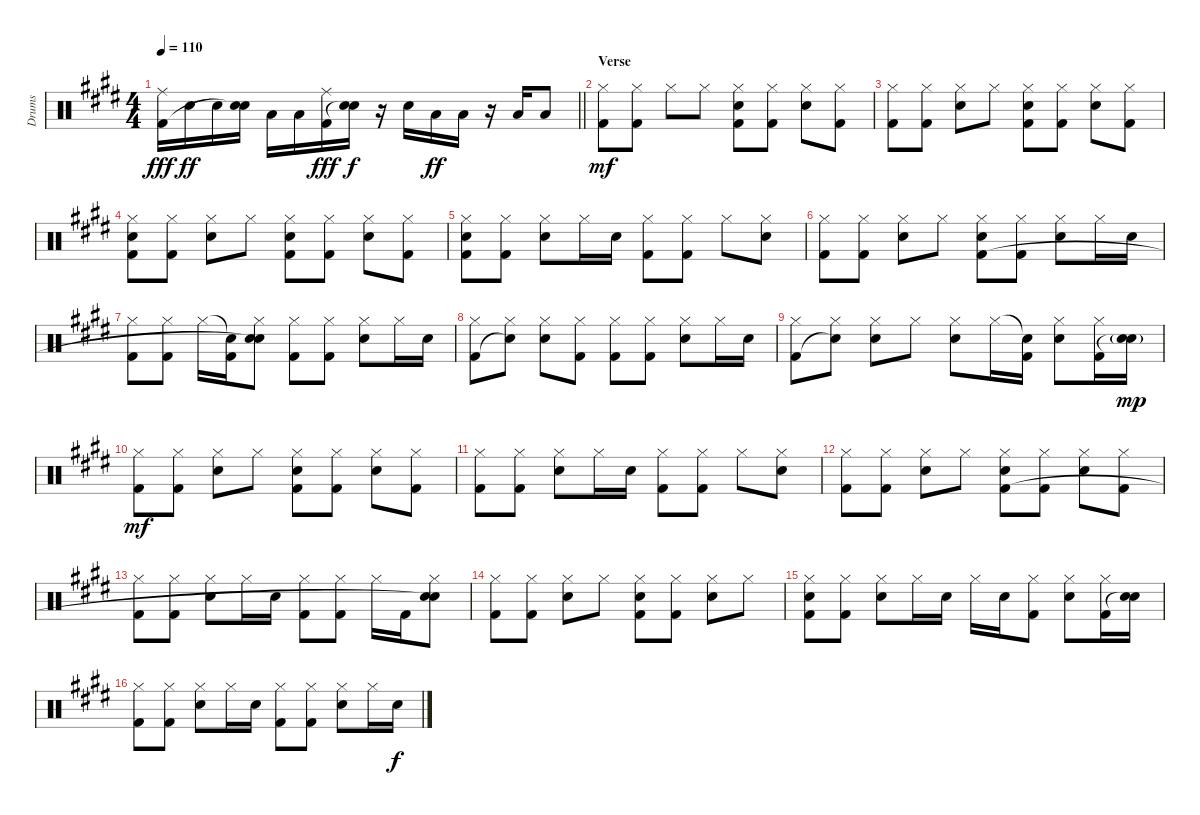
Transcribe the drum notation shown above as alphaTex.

\track ("Drums" "Drums") {instrument percussion}
\staff {score}
\articulation defaults
\ts (4 4)
\tempo 110
\clef neutral
\barLineRight lightlight
\ks c#minor
("Ride (middle)" "Kick (hit) 2").16{dy fff} "Electric Snare (hit)".16{dy ff} "Electric Snare (hit)".16 ("Electric Snare (hit)" "Snare (hit)"{t}).16 "Low Tom (hit)".16 "Low Tom (hit)".16 ("Ride (middle)" "Kick (hit) 2").16{dy fff} ("Electric Snare (hit)" "Snare (hit)"{t}).16{dy f} r.16 "Electric Snare (hit)".16 "Low Tom (hit)".16{dy ff} "Low Tom (hit)".16 r.16 "Low Tom (hit)".16 "Low Tom (hit)".8 |
\section ("" "Verse")
("Hi-Hat (closed)" "Kick (hit) 2").8{dy mf} ("Hi-Hat (closed)" "Kick (hit) 2").8 "Hi-Hat (closed)".8 "Hi-Hat (closed)".8 ("Hi-Hat (closed)" "Electric Snare (hit)" "Kick (hit) 2").8 ("Hi-Hat (closed)" "Kick (hit) 2").8 ("Hi-Hat (closed)" "Electric Snare (hit)").8 ("Hi-Hat (closed)" "Kick (hit) 2").8 |
("Hi-Hat (closed)" "Kick (hit) 2").8 ("Hi-Hat (closed)" "Kick (hit) 2").8 ("Hi-Hat (closed)" "Electric Snare (hit)").8 "Hi-Hat (closed)".8 ("Hi-Hat (closed)" "Electric Snare (hit)" "Kick (hit) 2").8 ("Hi-Hat (closed)" "Kick (hit) 2").8 ("Hi-Hat (closed)" "Electric Snare (hit)").8 ("Hi-Hat (closed)" "Kick (hit) 2").8 |
("Hi-Hat (closed)" "Electric Snare (hit)" "Kick (hit) 2").8 ("Hi-Hat (closed)" "Kick (hit) 2").8 ("Hi-Hat (closed)" "Electric Snare (hit)").8 "Hi-Hat (closed)".8 ("Hi-Hat (closed)" "Electric Snare (hit)" "Kick (hit) 2").8 ("Hi-Hat (closed)" "Kick (hit) 2").8 ("Hi-Hat (closed)" "Electric Snare (hit)").8 ("Hi-Hat (closed)" "Kick (hit) 2").8 |
("Hi-Hat (closed)" "Electric Snare (hit)" "Kick (hit) 2").8 ("Hi-Hat (closed)" "Kick (hit) 2").8 ("Hi-Hat (closed)" "Electric Snare (hit)").8 "Hi-Hat (closed)".16 "Electric Snare (hit)".16 ("Hi-Hat (closed)" "Kick (hit) 2").8 ("Hi-Hat (closed)" "Kick (hit) 2").8 "Hi-Hat (closed)".8 ("Hi-Hat (closed)" "Electric Snare (hit)").8 |
("Hi-Hat (closed)" "Kick (hit) 2").8 ("Hi-Hat (closed)" "Kick (hit) 2").8 ("Hi-Hat (closed)" "Electric Snare (hit)").8 "Hi-Hat (closed)".8 ("Hi-Hat (closed)" "Electric Snare (hit)" "Kick (hit) 2").8 ("Hi-Hat (closed)" "Kick (hit) 2").8 ("Hi-Hat (closed)" "Electric Snare (hit)").8 "Hi-Hat (closed)".16 "Electric Snare (hit)".16 |
("Hi-Hat (closed)" "Kick (hit) 2").8 ("Hi-Hat (closed)" "Kick (hit) 2").8 "Hi-Hat (closed)".16 ("Snare (hit)"{t} "Kick (hit) 2").16 ("Hi-Hat (closed)" "Electric Snare (hit)" "Snare (hit)"{t}).8 ("Hi-Hat (closed)" "Kick (hit) 2").8 ("Hi-Hat (closed)" "Kick (hit) 2").8 ("Hi-Hat (closed)" "Electric Snare (hit)").8 "Hi-Hat (closed)".16 "Electric Snare (hit)".16 |
("Hi-Hat (closed)" "Kick (hit) 2").8 ("Hi-Hat (closed)" "Snare (hit)"{t}).8 ("Hi-Hat (closed)" "Electric Snare (hit)").8 ("Hi-Hat (closed)" "Kick (hit) 2").8 ("Hi-Hat (closed)" "Kick (hit) 2").8 ("Hi-Hat (closed)" "Kick (hit) 2").8 ("Hi-Hat (closed)" "Electric Snare (hit)").8 "Hi-Hat (closed)".16 "Electric Snare (hit)".16 |
("Hi-Hat (closed)" "Kick (hit) 2").8 ("Hi-Hat (closed)" "Snare (hit)"{t}).8 ("Hi-Hat (closed)" "Electric Snare (hit)").8 "Hi-Hat (closed)".8 ("Hi-Hat (closed)" "Electric Snare (hit)").8 "Hi-Hat (closed)".16 ("Snare (hit)"{t} "Kick (hit) 2").16 ("Hi-Hat (closed)" "Electric Snare (hit)").8 ("Hi-Hat (closed)" "Kick (hit) 2").16 ("Electric Snare (hit)"{g} "Snare (hit)"{t}).16{dy mp} |
("Hi-Hat (closed)" "Kick (hit) 2").8{dy mf} ("Hi-Hat (closed)" "Kick (hit) 2").8 ("Hi-Hat (closed)" "Electric Snare (hit)").8 "Hi-Hat (closed)".8 ("Hi-Hat (closed)" "Electric Snare (hit)" "Kick (hit) 2").8 ("Hi-Hat (closed)" "Kick (hit) 2").8 ("Hi-Hat (closed)" "Electric Snare (hit)").8 ("Hi-Hat (closed)" "Kick (hit) 2").8 |
("Hi-Hat (closed)" "Kick (hit) 2").8 ("Hi-Hat (closed)" "Kick (hit) 2").8 ("Hi-Hat (closed)" "Electric Snare (hit)").8 "Hi-Hat (closed)".16 "Electric Snare (hit)".16 ("Hi-Hat (closed)" "Kick (hit) 2").8 ("Hi-Hat (closed)" "Kick (hit) 2").8 "Hi-Hat (closed)".8 ("Hi-Hat (closed)" "Electric Snare (hit)").8 |
("Hi-Hat (closed)" "Kick (hit) 2").8 ("Hi-Hat (closed)" "Kick (hit) 2").8 ("Hi-Hat (closed)" "Electric Snare (hit)").8 "Hi-Hat (closed)".8 ("Hi-Hat (closed)" "Electric Snare (hit)" "Kick (hit) 2").8 ("Hi-Hat (closed)" "Kick (hit) 2").8 ("Hi-Hat (closed)" "Electric Snare (hit)").8 ("Hi-Hat (closed)" "Kick (hit) 2").8 |
("Hi-Hat (closed)" "Kick (hit) 2").8 ("Hi-Hat (closed)" "Kick (hit) 2").8 ("Hi-Hat (closed)" "Electric Snare (hit)").8 "Hi-Hat (closed)".16 "Electric Snare (hit)".16 ("Hi-Hat (closed)" "Kick (hit) 2").8 ("Hi-Hat (closed)" "Kick (hit) 2").8 "Hi-Hat (closed)".16 "Kick (hit) 2".16 ("Hi-Hat (closed)" "Electric Snare (hit)" "Snare (hit)"{t}).8 |
("Hi-Hat (closed)" "Kick (hit) 2").8 ("Hi-Hat (closed)" "Kick (hit) 2").8 ("Hi-Hat (closed)" "Electric Snare (hit)").8 "Hi-Hat (closed)".8 ("Hi-Hat (closed)" "Electric Snare (hit)" "Kick (hit) 2").8 ("Hi-Hat (closed)" "Kick (hit) 2").8 ("Hi-Hat (closed)" "Electric Snare (hit)").8 "Hi-Hat (closed)".8 |
("Hi-Hat (closed)" "Electric Snare (hit)" "Kick (hit) 2").8 ("Hi-Hat (closed)" "Kick (hit) 2").8 ("Hi-Hat (closed)" "Electric Snare (hit)").8 "Hi-Hat (closed)".16 "Electric Snare (hit)".16 "Hi-Hat (closed)".16 "Electric Snare (hit)".16 ("Hi-Hat (closed)" "Kick (hit) 2").8 ("Hi-Hat (closed)" "Electric Snare (hit)").8 ("Hi-Hat (closed)" "Kick (hit) 2").16 ("Electric Snare (hit)" "Snare (hit)"{t}).16 |
("Hi-Hat (closed)" "Kick (hit) 2").8 ("Hi-Hat (closed)" "Kick (hit) 2").8 ("Hi-Hat (closed)" "Electric Snare (hit)").8 "Hi-Hat (closed)".16 "Electric Snare (hit)".16 ("Hi-Hat (closed)" "Kick (hit) 2").8 ("Hi-Hat (closed)" "Kick (hit) 2").8 ("Hi-Hat (closed)" "Electric Snare (hit)").8 "Hi-Hat (closed)".16 "Electric Snare (hit)".16{dy f}
